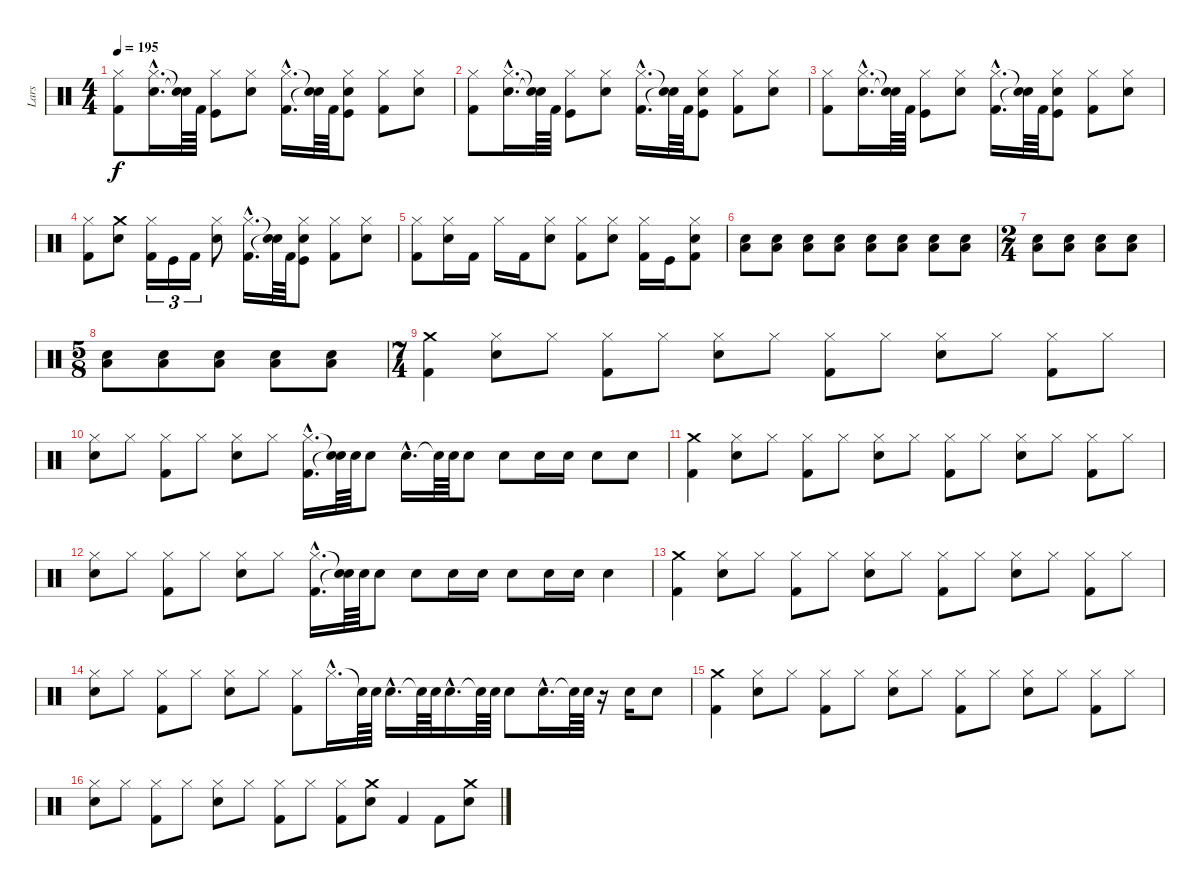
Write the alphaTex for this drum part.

\track ("Lars" "Lars") {instrument percussion}
\staff {score}
\articulation defaults
\ts (4 4)
\tempo 195
\clef neutral
\ks c
("Kick (hit) 2" "Hi-Hat (closed)").8{dy f} ("Snare (hit) 2"{hac} "Hi-Hat (closed)"{hac}).16{d} ("Snare (hit)"{t} "Snare (hit)"{t}).64 "Kick (hit) 2".64 ("Kick (hit)" "Hi-Hat (closed)").8 ("Snare (hit) 2" "Hi-Hat (closed)").8 ("Kick (hit) 2"{hac} "Hi-Hat (closed)"{hac}).16{d} ("Snare (hit)"{t} "Snare (hit)"{t}).64 "Kick (hit) 2".64 ("Kick (hit)" "Snare (hit) 2" "Hi-Hat (closed)").8 ("Kick (hit) 2" "Hi-Hat (closed)").8 ("Snare (hit) 2" "Hi-Hat (closed)").8 |
("Kick (hit) 2" "Hi-Hat (closed)").8 ("Snare (hit) 2"{hac} "Hi-Hat (closed)"{hac}).16{d} ("Snare (hit)"{t} "Snare (hit)"{t}).64 "Kick (hit) 2".64 ("Kick (hit)" "Hi-Hat (closed)").8 ("Snare (hit) 2" "Hi-Hat (closed)").8 ("Kick (hit) 2"{hac} "Hi-Hat (closed)"{hac}).16{d} ("Snare (hit)"{t} "Snare (hit)"{t}).64 "Kick (hit) 2".64 ("Kick (hit)" "Snare (hit) 2" "Hi-Hat (closed)").8 ("Kick (hit) 2" "Hi-Hat (closed)").8 ("Snare (hit) 2" "Hi-Hat (closed)").8 |
("Kick (hit) 2" "Hi-Hat (closed)").8 ("Snare (hit) 2"{hac} "Hi-Hat (closed)"{hac}).16{d} ("Snare (hit)"{t} "Snare (hit)"{t}).64 "Kick (hit) 2".64 ("Kick (hit)" "Hi-Hat (closed)").8 ("Snare (hit) 2" "Hi-Hat (closed)").8 ("Kick (hit) 2"{hac} "Hi-Hat (closed)"{hac}).16{d} ("Snare (hit)"{t} "Snare (hit)"{t}).64 "Kick (hit) 2".64 ("Kick (hit)" "Snare (hit) 2" "Hi-Hat (closed)").8 ("Kick (hit) 2" "Hi-Hat (closed)").8 ("Snare (hit) 2" "Hi-Hat (closed)").8 |
("Hi-Hat (closed)" "Kick (hit) 2").8 ("Crash medium (hit)" "Snare (hit) 2").8 ("Kick (hit) 2" "Hi-Hat (closed)").16{tu (3 2)} "Kick (hit)".16{tu (3 2)} "Kick (hit) 2".16{tu (3 2)} ("Snare (hit) 2" "Hi-Hat (closed)").8 ("Kick (hit) 2"{hac} "Hi-Hat (closed)"{hac}).16{d} ("Snare (hit)"{t} "Snare (hit)"{t}).64 "Kick (hit) 2".64 ("Kick (hit)" "Snare (hit) 2" "Hi-Hat (closed)").8 ("Kick (hit) 2" "Hi-Hat (closed)").8 ("Snare (hit) 2" "Hi-Hat (closed)").8 |
("Hi-Hat (closed)" "Kick (hit) 2").8 ("Snare (hit) 2" "Hi-Hat (closed)").16 "Kick (hit) 2".16 "Hi-Hat (closed)".16 "Kick (hit) 2".16 ("Snare (hit) 2" "Hi-Hat (closed)").8 ("Hi-Hat (closed)" "Kick (hit) 2").8 ("Snare (hit) 2" "Hi-Hat (closed)").8 ("Hi-Hat (closed)" "Kick (hit) 2").16 "Kick (hit)".16 ("Kick (hit) 2" "Snare (hit) 2" "Hi-Hat (closed)").8 |
("Snare (hit) 2" "Low Tom (hit)").8 ("Snare (hit) 2" "Low Tom (hit)").8 ("Snare (hit) 2" "Low Tom (hit)").8 ("Snare (hit) 2" "Low Tom (hit)").8 ("Snare (hit) 2" "Low Tom (hit)").8 ("Snare (hit) 2" "Low Tom (hit)").8 ("Snare (hit) 2" "Low Tom (hit)").8 ("Snare (hit) 2" "Low Tom (hit)").8 |
\ts (2 4)
("Snare (hit) 2" "Low Tom (hit)").8 ("Snare (hit) 2" "Low Tom (hit)").8 ("Snare (hit) 2" "Low Tom (hit)").8 ("Snare (hit) 2" "Low Tom (hit)").8 |
\ts (5 8)
("Snare (hit) 2" "Low Tom (hit)").8 ("Snare (hit) 2" "Low Tom (hit)").8 ("Snare (hit) 2" "Low Tom (hit)").8 ("Snare (hit) 2" "Low Tom (hit)").8 ("Snare (hit) 2" "Low Tom (hit)").8 |
\ts (7 4)
("Kick (hit) 2" "Crash medium (hit)").4 ("Hi-Hat (closed)" "Snare (hit) 2").8 "Hi-Hat (closed)".8 ("Hi-Hat (closed)" "Kick (hit) 2").8 "Hi-Hat (closed)".8 ("Snare (hit) 2" "Hi-Hat (closed)").8 "Hi-Hat (closed)".8 ("Hi-Hat (closed)" "Kick (hit) 2").8 "Hi-Hat (closed)".8 ("Snare (hit) 2" "Hi-Hat (closed)").8 "Hi-Hat (closed)".8 ("Hi-Hat (closed)" "Kick (hit) 2").8 "Hi-Hat (closed)".8 |
("Hi-Hat (closed)" "Snare (hit) 2").8 "Hi-Hat (closed)".8 ("Hi-Hat (closed)" "Kick (hit) 2").8 "Hi-Hat (closed)".8 ("Hi-Hat (closed)" "Snare (hit) 2").8 "Hi-Hat (closed)".8 ("Hi-Hat (closed)"{hac} "Kick (hit) 2"{hac}).16{d} ("Snare (hit)"{t} "Snare (hit)"{t}).64 "Snare (hit) 2".64 "Snare (hit) 2".8 "Snare (hit) 2"{hac}.16{d} "Snare (hit)"{t}.64 "Snare (hit) 2".64 "Snare (hit) 2".8 "Snare (hit) 2".8 "Snare (hit) 2".16 "Snare (hit) 2".16 "Snare (hit) 2".8 "Snare (hit) 2".8 |
("Kick (hit) 2" "Crash medium (hit)").4 ("Hi-Hat (closed)" "Snare (hit) 2").8 "Hi-Hat (closed)".8 ("Hi-Hat (closed)" "Kick (hit) 2").8 "Hi-Hat (closed)".8 ("Snare (hit) 2" "Hi-Hat (closed)").8 "Hi-Hat (closed)".8 ("Hi-Hat (closed)" "Kick (hit) 2").8 "Hi-Hat (closed)".8 ("Snare (hit) 2" "Hi-Hat (closed)").8 "Hi-Hat (closed)".8 ("Hi-Hat (closed)" "Kick (hit) 2").8 "Hi-Hat (closed)".8 |
("Hi-Hat (closed)" "Snare (hit) 2").8 "Hi-Hat (closed)".8 ("Hi-Hat (closed)" "Kick (hit) 2").8 "Hi-Hat (closed)".8 ("Hi-Hat (closed)" "Snare (hit) 2").8 "Hi-Hat (closed)".8 ("Hi-Hat (closed)"{hac} "Kick (hit) 2"{hac}).16{d} ("Snare (hit)"{t} "Snare (hit)"{t}).64 "Snare (hit) 2".64 "Snare (hit) 2".8 "Snare (hit) 2".8 "Snare (hit) 2".16 "Snare (hit) 2".16 "Snare (hit) 2".8 "Snare (hit) 2".16 "Snare (hit) 2".16 "Snare (hit) 2".4 |
("Kick (hit) 2" "Crash medium (hit)").4 ("Hi-Hat (closed)" "Snare (hit) 2").8 "Hi-Hat (closed)".8 ("Hi-Hat (closed)" "Kick (hit) 2").8 "Hi-Hat (closed)".8 ("Snare (hit) 2" "Hi-Hat (closed)").8 "Hi-Hat (closed)".8 ("Hi-Hat (closed)" "Kick (hit) 2").8 "Hi-Hat (closed)".8 ("Snare (hit) 2" "Hi-Hat (closed)").8 "Hi-Hat (closed)".8 ("Hi-Hat (closed)" "Kick (hit) 2").8 "Hi-Hat (closed)".8 |
("Hi-Hat (closed)" "Snare (hit) 2").8 "Hi-Hat (closed)".8 ("Hi-Hat (closed)" "Kick (hit) 2").8 "Hi-Hat (closed)".8 ("Hi-Hat (closed)" "Snare (hit) 2").8 "Hi-Hat (closed)".8 ("Hi-Hat (closed)" "Kick (hit) 2").8 "Hi-Hat (closed)"{hac}.16{d} "Snare (hit)"{t}.64 "Snare (hit) 2".64 "Snare (hit) 2"{hac}.16{d} "Snare (hit)"{t}.64 "Snare (hit) 2".64 "Snare (hit) 2"{hac}.16{d} "Snare (hit)"{t}.64 "Snare (hit) 2".64 "Snare (hit) 2".8 "Snare (hit) 2"{hac}.16{d} "Snare (hit)"{t}.64 "Snare (hit) 2".64 r.16 "Snare (hit) 2".16 "Snare (hit) 2".8 |
("Kick (hit) 2" "Crash medium (hit)").4 ("Hi-Hat (closed)" "Snare (hit) 2").8 "Hi-Hat (closed)".8 ("Kick (hit) 2" "Hi-Hat (closed)").8 "Hi-Hat (closed)".8 ("Snare (hit) 2" "Hi-Hat (closed)").8 "Hi-Hat (closed)".8 ("Kick (hit) 2" "Hi-Hat (closed)").8 "Hi-Hat (closed)".8 ("Snare (hit) 2" "Hi-Hat (closed)").8 "Hi-Hat (closed)".8 ("Kick (hit) 2" "Hi-Hat (closed)").8 "Hi-Hat (closed)".8 |
("Hi-Hat (closed)" "Snare (hit) 2").8 "Hi-Hat (closed)".8 ("Hi-Hat (closed)" "Kick (hit) 2").8 "Hi-Hat (closed)".8 ("Snare (hit) 2" "Hi-Hat (closed)").8 "Hi-Hat (closed)".8 ("Hi-Hat (closed)" "Kick (hit) 2").8 "Hi-Hat (closed)".8 ("Hi-Hat (closed)" "Kick (hit) 2").8 ("Crash medium (hit)" "Snare (hit) 2").8 "Kick (hit) 2".4 "Kick (hit) 2".8 ("Snare (hit) 2" "Crash medium (hit)").8
